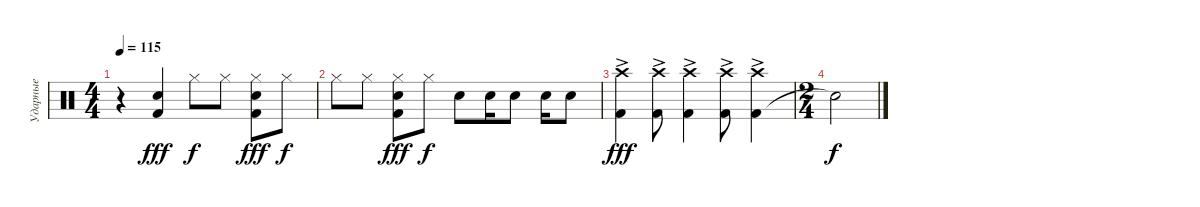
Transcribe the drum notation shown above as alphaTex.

\track ("Ударные" "Ударные") {instrument percussion}
\staff {score}
\articulation defaults
\ts (4 4)
\tempo 115
\clef neutral
\ks c
r.4{dy ff} ("Kick (hit) 2" "Electric Snare (hit)").4{dy fff} "Hi-Hat (closed)".8{dy f} "Hi-Hat (closed)".8 ("Kick (hit) 2" "Electric Snare (hit)" "Hi-Hat (closed)").8{dy fff} "Hi-Hat (closed)".8{dy f} |
"Hi-Hat (closed)".8 "Hi-Hat (closed)".8 ("Kick (hit) 2" "Electric Snare (hit)" "Hi-Hat (closed)").8{dy fff} "Hi-Hat (closed)".8{dy f} "Snare (hit) 2".8 "Snare (hit) 2".16 "Snare (hit) 2".8 "Snare (hit) 2".16 "Snare (hit) 2".8 |
("Kick (hit) 2" "Crash high (hit)"{ac}).4{dy fff} ("Kick (hit) 2" "Crash high (hit)"{ac}).8 ("Kick (hit) 2" "Crash high (hit)"{ac}).4 ("Kick (hit) 2" "Crash high (hit)"{ac}).8 ("Kick (hit) 2" "Crash high (hit)"{ac}).4 |
\ts (2 4)
"Snare (hit)"{t}.2{dy f}
